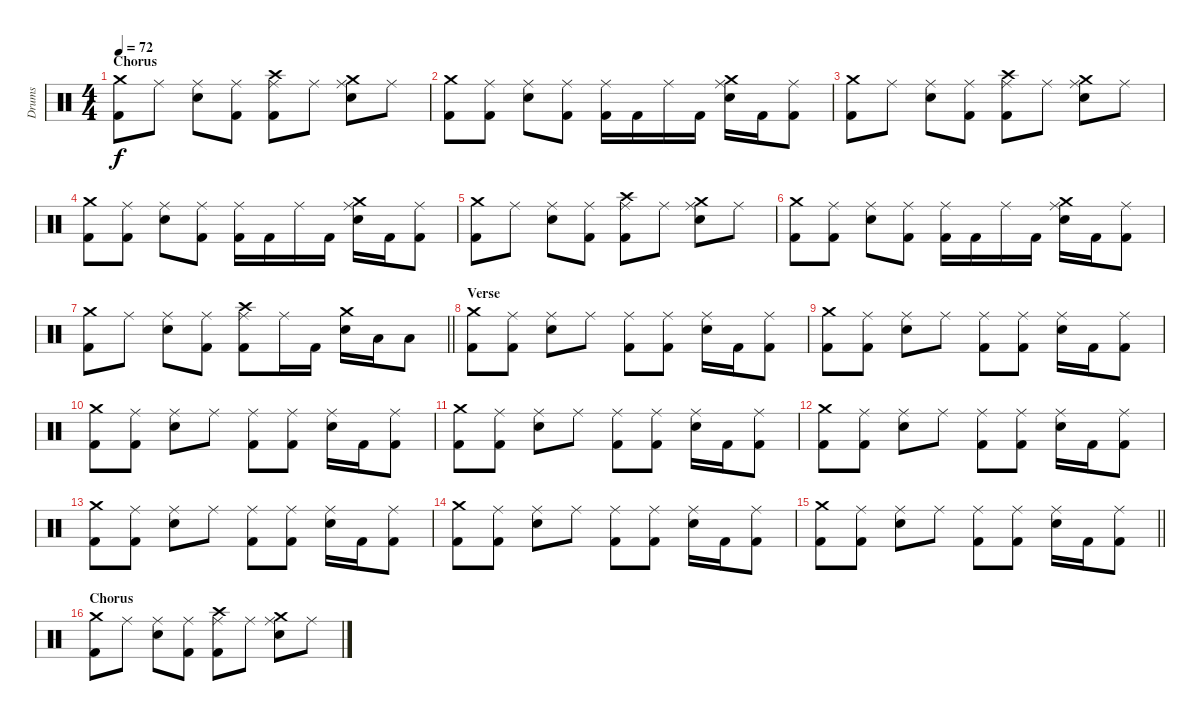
\track ("Drums" "Drums") {instrument percussion}
\staff {score}
\articulation defaults
\ts (4 4)
\section ("" "Chorus")
\tempo 72
\clef neutral
\ks c
("Crash medium (hit)" "Kick (hit) 2").8{dy f} "Ride (middle)".8 ("Ride (middle)" "Electric Snare (hit)").8 ("Ride (middle)" "Kick (hit) 2").8 ("Crash high (hit)" "Ride (middle)" "Kick (hit) 2").8 "Ride (middle)".8 ("Crash medium (hit)" "Ride (middle)" "Electric Snare (hit)").8 "Ride (middle)".8 |
("Crash medium (hit)" "Kick (hit) 2").8 ("Ride (middle)" "Kick (hit) 2").8 ("Ride (middle)" "Electric Snare (hit)").8 ("Ride (middle)" "Kick (hit) 2").8 ("Ride (middle)" "Kick (hit) 2").16 "Kick (hit) 2".16 "Ride (middle)".16 "Kick (hit) 2".16 ("Crash medium (hit)" "Ride (middle)" "Electric Snare (hit)").16 "Kick (hit) 2".16 ("Ride (middle)" "Kick (hit) 2").8 |
("Crash medium (hit)" "Kick (hit) 2").8 "Ride (middle)".8 ("Ride (middle)" "Electric Snare (hit)").8 ("Ride (middle)" "Kick (hit) 2").8 ("Crash high (hit)" "Ride (middle)" "Kick (hit) 2").8 "Ride (middle)".8 ("Crash medium (hit)" "Ride (middle)" "Electric Snare (hit)").8 "Ride (middle)".8 |
("Crash medium (hit)" "Kick (hit) 2").8 ("Ride (middle)" "Kick (hit) 2").8 ("Ride (middle)" "Electric Snare (hit)").8 ("Ride (middle)" "Kick (hit) 2").8 ("Ride (middle)" "Kick (hit) 2").16 "Kick (hit) 2".16 "Ride (middle)".16 "Kick (hit) 2".16 ("Crash medium (hit)" "Ride (middle)" "Electric Snare (hit)").16 "Kick (hit) 2".16 ("Ride (middle)" "Kick (hit) 2").8 |
("Crash medium (hit)" "Kick (hit) 2").8 "Ride (middle)".8 ("Ride (middle)" "Electric Snare (hit)").8 ("Ride (middle)" "Kick (hit) 2").8 ("Crash high (hit)" "Ride (middle)" "Kick (hit) 2").8 "Ride (middle)".8 ("Crash medium (hit)" "Ride (middle)" "Electric Snare (hit)").8 "Ride (middle)".8 |
("Crash medium (hit)" "Kick (hit) 2").8 ("Ride (middle)" "Kick (hit) 2").8 ("Ride (middle)" "Electric Snare (hit)").8 ("Ride (middle)" "Kick (hit) 2").8 ("Ride (middle)" "Kick (hit) 2").16 "Kick (hit) 2".16 "Ride (middle)".16 "Kick (hit) 2".16 ("Crash medium (hit)" "Ride (middle)" "Electric Snare (hit)").16 "Kick (hit) 2".16 ("Ride (middle)" "Kick (hit) 2").8 |
\barLineRight lightlight
("Crash medium (hit)" "Kick (hit) 2").8 "Ride (middle)".8 ("Ride (middle)" "Electric Snare (hit)").8 ("Ride (middle)" "Kick (hit) 2").8 ("Crash high (hit)" "Ride (middle)" "Kick (hit) 2").8 "Ride (middle)".16 "Kick (hit) 2".16 ("Crash medium (hit)" "Electric Snare (hit)").16 "Low Tom (hit)".16 "Low Tom (hit)".8 |
\section ("" "Verse")
("Crash medium (hit)" "Kick (hit) 2").8 ("Ride (middle)" "Kick (hit) 2").8 ("Ride (middle)" "Electric Snare (hit)").8 "Ride (middle)".8 ("Ride (middle)" "Kick (hit) 2").8 ("Ride (middle)" "Kick (hit) 2").8 ("Ride (middle)" "Electric Snare (hit)").16 "Kick (hit) 2".16 ("Ride (middle)" "Kick (hit) 2").8 |
("Crash medium (hit)" "Kick (hit) 2").8 ("Ride (middle)" "Kick (hit) 2").8 ("Ride (middle)" "Electric Snare (hit)").8 "Ride (middle)".8 ("Ride (middle)" "Kick (hit) 2").8 ("Ride (middle)" "Kick (hit) 2").8 ("Ride (middle)" "Electric Snare (hit)").16 "Kick (hit) 2".16 ("Ride (middle)" "Kick (hit) 2").8 |
("Crash medium (hit)" "Kick (hit) 2").8 ("Ride (middle)" "Kick (hit) 2").8 ("Ride (middle)" "Electric Snare (hit)").8 "Ride (middle)".8 ("Ride (middle)" "Kick (hit) 2").8 ("Ride (middle)" "Kick (hit) 2").8 ("Ride (middle)" "Electric Snare (hit)").16 "Kick (hit) 2".16 ("Ride (middle)" "Kick (hit) 2").8 |
("Crash medium (hit)" "Kick (hit) 2").8 ("Ride (middle)" "Kick (hit) 2").8 ("Ride (middle)" "Electric Snare (hit)").8 "Ride (middle)".8 ("Ride (middle)" "Kick (hit) 2").8 ("Ride (middle)" "Kick (hit) 2").8 ("Ride (middle)" "Electric Snare (hit)").16 "Kick (hit) 2".16 ("Ride (middle)" "Kick (hit) 2").8 |
("Crash medium (hit)" "Kick (hit) 2").8 ("Ride (middle)" "Kick (hit) 2").8 ("Ride (middle)" "Electric Snare (hit)").8 "Ride (middle)".8 ("Ride (middle)" "Kick (hit) 2").8 ("Ride (middle)" "Kick (hit) 2").8 ("Ride (middle)" "Electric Snare (hit)").16 "Kick (hit) 2".16 ("Ride (middle)" "Kick (hit) 2").8 |
("Crash medium (hit)" "Kick (hit) 2").8 ("Ride (middle)" "Kick (hit) 2").8 ("Ride (middle)" "Electric Snare (hit)").8 "Ride (middle)".8 ("Ride (middle)" "Kick (hit) 2").8 ("Ride (middle)" "Kick (hit) 2").8 ("Ride (middle)" "Electric Snare (hit)").16 "Kick (hit) 2".16 ("Ride (middle)" "Kick (hit) 2").8 |
("Crash medium (hit)" "Kick (hit) 2").8 ("Ride (middle)" "Kick (hit) 2").8 ("Ride (middle)" "Electric Snare (hit)").8 "Ride (middle)".8 ("Ride (middle)" "Kick (hit) 2").8 ("Ride (middle)" "Kick (hit) 2").8 ("Ride (middle)" "Electric Snare (hit)").16 "Kick (hit) 2".16 ("Ride (middle)" "Kick (hit) 2").8 |
\barLineRight lightlight
("Crash medium (hit)" "Kick (hit) 2").8 ("Ride (middle)" "Kick (hit) 2").8 ("Ride (middle)" "Electric Snare (hit)").8 "Ride (middle)".8 ("Ride (middle)" "Kick (hit) 2").8 ("Ride (middle)" "Kick (hit) 2").8 ("Ride (middle)" "Electric Snare (hit)").16 "Kick (hit) 2".16 ("Ride (middle)" "Kick (hit) 2").8 |
\section ("" "Chorus")
("Crash medium (hit)" "Kick (hit) 2").8 "Ride (middle)".8 ("Ride (middle)" "Electric Snare (hit)").8 ("Ride (middle)" "Kick (hit) 2").8 ("Crash high (hit)" "Ride (middle)" "Kick (hit) 2").8 "Ride (middle)".8 ("Crash medium (hit)" "Ride (middle)" "Electric Snare (hit)").8 "Ride (middle)".8
